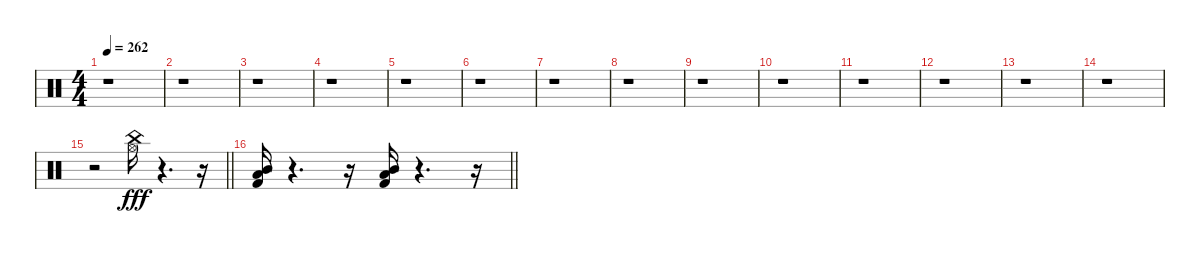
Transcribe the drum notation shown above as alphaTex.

\track "" {instrument percussion}
\staff {score}
\articulation defaults
\ts (4 4)
\tempo 262
\clef neutral
\ks c
r.1{dy fff} |
r.1 |
r.1 |
r.1 |
r.1 |
r.1 |
r.1 |
r.1 |
r.1 |
r.1 |
r.1 |
r.1 |
r.1 |
r.1 |
\barLineRight lightlight
r.2 ("Hi-Hat (open)" "China (hit)").16 r.4{d} r.16 |
\section ("" "")
\barLineRight lightlight
("Kick (hit) 2" "Low Floor Tom (hit)" "Mid Tom (hit)").16 r.4{d} r.16 ("Kick (hit) 2" "Low Floor Tom (hit)" "Mid Tom (hit)").16 r.4{d} r.16
